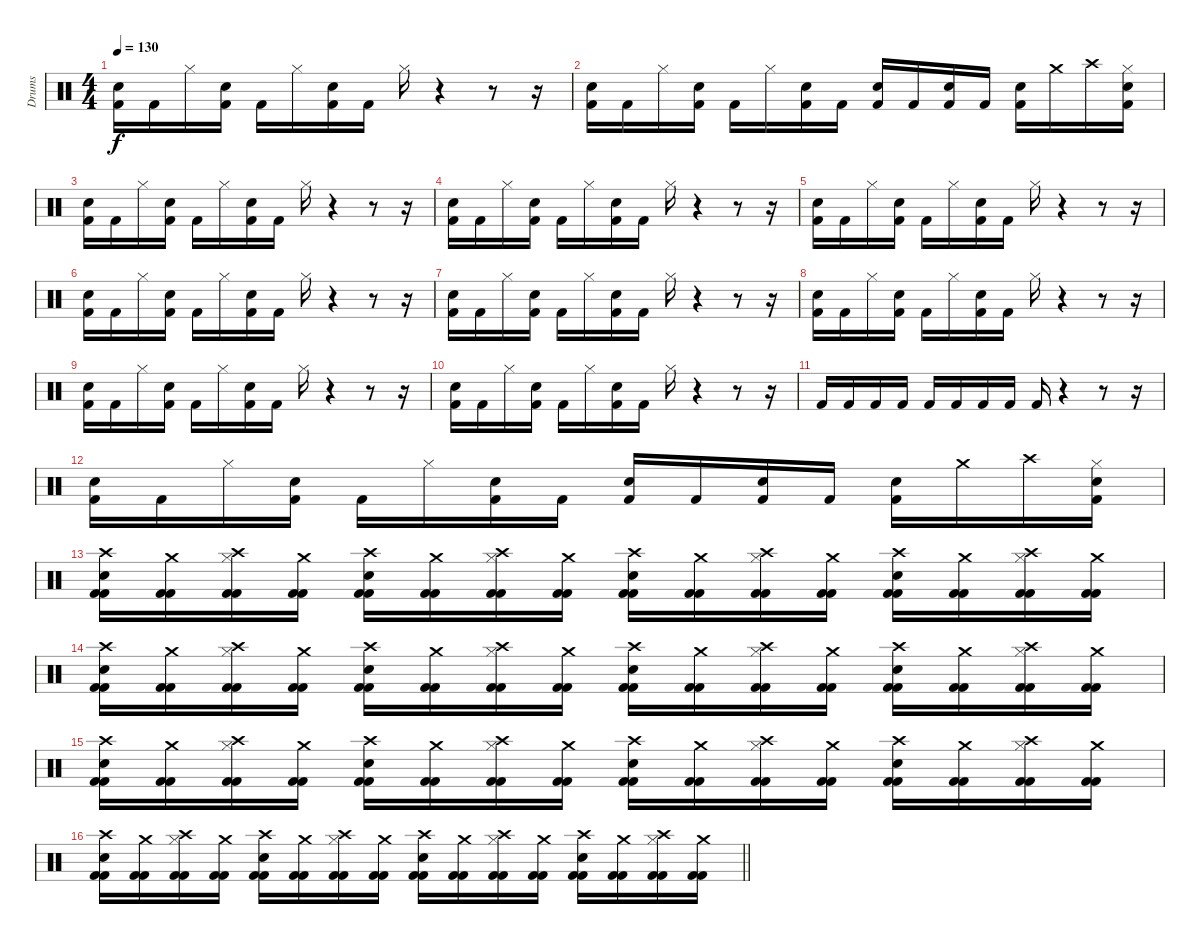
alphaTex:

\track ("Drums" "Drums") {instrument percussion}
\staff
\articulation defaults
\ts (4 4)
\tempo 130
\clef neutral
\ks c
("Snare (hit) 2" "Kick (hit) 2").16{dy f} "Kick (hit) 2".16 "Hi-Hat (closed)".16 ("Snare (hit) 2" "Kick (hit) 2").16 "Kick (hit) 2".16 "Hi-Hat (closed)".16 ("Snare (hit) 2" "Kick (hit) 2").16 "Kick (hit) 2".16 "Hi-Hat (closed)".16 r.4 r.8 r.16 |
("Snare (hit) 2" "Kick (hit) 2").16 "Kick (hit) 2".16 "Hi-Hat (closed)".16 ("Snare (hit) 2" "Kick (hit) 2").16 "Kick (hit) 2".16 "Hi-Hat (closed)".16 ("Snare (hit) 2" "Kick (hit) 2").16 "Kick (hit) 2".16 ("Snare (hit) 2" "Kick (hit) 2").16 "Kick (hit) 2".16 ("Snare (hit) 2" "Kick (hit) 2").16 "Kick (hit) 2".16 ("Snare (hit) 2" "Kick (hit) 2").16 "Crash medium (hit)".16 "Crash high (hit)".16 ("Hi-Hat (closed)" "Snare (hit) 2" "Kick (hit) 2").16 |
("Snare (hit) 2" "Kick (hit) 2").16 "Kick (hit) 2".16 "Hi-Hat (closed)".16 ("Snare (hit) 2" "Kick (hit) 2").16 "Kick (hit) 2".16 "Hi-Hat (closed)".16 ("Snare (hit) 2" "Kick (hit) 2").16 "Kick (hit) 2".16 "Hi-Hat (closed)".16 r.4 r.8 r.16 |
("Snare (hit) 2" "Kick (hit) 2").16 "Kick (hit) 2".16 "Hi-Hat (closed)".16 ("Snare (hit) 2" "Kick (hit) 2").16 "Kick (hit) 2".16 "Hi-Hat (closed)".16 ("Snare (hit) 2" "Kick (hit) 2").16 "Kick (hit) 2".16 "Hi-Hat (closed)".16 r.4 r.8 r.16 |
("Snare (hit) 2" "Kick (hit) 2").16 "Kick (hit) 2".16 "Hi-Hat (closed)".16 ("Snare (hit) 2" "Kick (hit) 2").16 "Kick (hit) 2".16 "Hi-Hat (closed)".16 ("Snare (hit) 2" "Kick (hit) 2").16 "Kick (hit) 2".16 "Hi-Hat (closed)".16 r.4 r.8 r.16 |
("Snare (hit) 2" "Kick (hit) 2").16 "Kick (hit) 2".16 "Hi-Hat (closed)".16 ("Snare (hit) 2" "Kick (hit) 2").16 "Kick (hit) 2".16 "Hi-Hat (closed)".16 ("Snare (hit) 2" "Kick (hit) 2").16 "Kick (hit) 2".16 "Hi-Hat (closed)".16 r.4 r.8 r.16 |
("Snare (hit) 2" "Kick (hit) 2").16 "Kick (hit) 2".16 "Hi-Hat (closed)".16 ("Snare (hit) 2" "Kick (hit) 2").16 "Kick (hit) 2".16 "Hi-Hat (closed)".16 ("Snare (hit) 2" "Kick (hit) 2").16 "Kick (hit) 2".16 "Hi-Hat (closed)".16 r.4 r.8 r.16 |
("Snare (hit) 2" "Kick (hit) 2").16 "Kick (hit) 2".16 "Hi-Hat (closed)".16 ("Snare (hit) 2" "Kick (hit) 2").16 "Kick (hit) 2".16 "Hi-Hat (closed)".16 ("Snare (hit) 2" "Kick (hit) 2").16 "Kick (hit) 2".16 "Hi-Hat (closed)".16 r.4 r.8 r.16 |
("Snare (hit) 2" "Kick (hit) 2").16 "Kick (hit) 2".16 "Hi-Hat (closed)".16 ("Snare (hit) 2" "Kick (hit) 2").16 "Kick (hit) 2".16 "Hi-Hat (closed)".16 ("Snare (hit) 2" "Kick (hit) 2").16 "Kick (hit) 2".16 "Hi-Hat (closed)".16 r.4 r.8 r.16 |
("Snare (hit) 2" "Kick (hit) 2").16 "Kick (hit) 2".16 "Hi-Hat (closed)".16 ("Snare (hit) 2" "Kick (hit) 2").16 "Kick (hit) 2".16 "Hi-Hat (closed)".16 ("Snare (hit) 2" "Kick (hit) 2").16 "Kick (hit) 2".16 "Hi-Hat (closed)".16 r.4 r.8 r.16 |
"Kick (hit) 2".16 "Kick (hit) 2".16 "Kick (hit) 2".16 "Kick (hit) 2".16 "Kick (hit) 2".16 "Kick (hit) 2".16 "Kick (hit) 2".16 "Kick (hit) 2".16 "Kick (hit) 2".16 r.4 r.8 r.16 |
("Snare (hit) 2" "Kick (hit) 2").16 "Kick (hit) 2".16 "Hi-Hat (closed)".16 ("Snare (hit) 2" "Kick (hit) 2").16 "Kick (hit) 2".16 "Hi-Hat (closed)".16 ("Snare (hit) 2" "Kick (hit) 2").16 "Kick (hit) 2".16 ("Snare (hit) 2" "Kick (hit) 2").16 "Kick (hit) 2".16 ("Snare (hit) 2" "Kick (hit) 2").16 "Kick (hit) 2".16 ("Snare (hit) 2" "Kick (hit) 2").16 "Crash medium (hit)".16 "Crash high (hit)".16 ("Hi-Hat (closed)" "Snare (hit) 2" "Kick (hit) 2").16 |
("Kick (hit) 2" "Crash high (hit)" "Electric Snare (hit)" "Kick (hit) 2").16 ("Kick (hit) 2" "Crash medium (hit)" "Kick (hit) 2").16 ("Kick (hit) 2" "Crash high (hit)" "Hi-Hat (closed)" "Kick (hit) 2").16 ("Kick (hit) 2" "Crash medium (hit)" "Kick (hit) 2").16 ("Kick (hit) 2" "Crash high (hit)" "Electric Snare (hit)" "Kick (hit) 2").16 ("Kick (hit) 2" "Crash medium (hit)" "Kick (hit) 2").16 ("Kick (hit) 2" "Crash high (hit)" "Hi-Hat (closed)" "Kick (hit) 2").16 ("Kick (hit) 2" "Crash medium (hit)" "Kick (hit) 2").16 ("Kick (hit) 2" "Crash high (hit)" "Electric Snare (hit)" "Kick (hit) 2").16 ("Kick (hit) 2" "Crash medium (hit)" "Kick (hit) 2").16 ("Kick (hit) 2" "Crash high (hit)" "Hi-Hat (closed)" "Kick (hit) 2").16 ("Kick (hit) 2" "Crash medium (hit)" "Kick (hit) 2").16 ("Kick (hit) 2" "Crash high (hit)" "Electric Snare (hit)" "Kick (hit) 2").16 ("Kick (hit) 2" "Crash medium (hit)" "Kick (hit) 2").16 ("Kick (hit) 2" "Crash high (hit)" "Hi-Hat (closed)" "Kick (hit) 2").16 ("Kick (hit) 2" "Crash medium (hit)" "Kick (hit) 2").16 |
("Kick (hit) 2" "Crash high (hit)" "Electric Snare (hit)" "Kick (hit) 2").16 ("Kick (hit) 2" "Crash medium (hit)" "Kick (hit) 2").16 ("Kick (hit) 2" "Crash high (hit)" "Hi-Hat (closed)" "Kick (hit) 2").16 ("Kick (hit) 2" "Crash medium (hit)" "Kick (hit) 2").16 ("Kick (hit) 2" "Crash high (hit)" "Electric Snare (hit)" "Kick (hit) 2").16 ("Kick (hit) 2" "Crash medium (hit)" "Kick (hit) 2").16 ("Kick (hit) 2" "Crash high (hit)" "Hi-Hat (closed)" "Kick (hit) 2").16 ("Kick (hit) 2" "Crash medium (hit)" "Kick (hit) 2").16 ("Kick (hit) 2" "Crash high (hit)" "Electric Snare (hit)" "Kick (hit) 2").16 ("Kick (hit) 2" "Crash medium (hit)" "Kick (hit) 2").16 ("Kick (hit) 2" "Crash high (hit)" "Hi-Hat (closed)" "Kick (hit) 2").16 ("Kick (hit) 2" "Crash medium (hit)" "Kick (hit) 2").16 ("Kick (hit) 2" "Crash high (hit)" "Electric Snare (hit)" "Kick (hit) 2").16 ("Kick (hit) 2" "Crash medium (hit)" "Kick (hit) 2").16 ("Kick (hit) 2" "Crash high (hit)" "Hi-Hat (closed)" "Kick (hit) 2").16 ("Kick (hit) 2" "Crash medium (hit)" "Kick (hit) 2").16 |
("Kick (hit) 2" "Crash high (hit)" "Electric Snare (hit)" "Kick (hit) 2").16 ("Kick (hit) 2" "Crash medium (hit)" "Kick (hit) 2").16 ("Kick (hit) 2" "Crash high (hit)" "Hi-Hat (closed)" "Kick (hit) 2").16 ("Kick (hit) 2" "Crash medium (hit)" "Kick (hit) 2").16 ("Kick (hit) 2" "Crash high (hit)" "Electric Snare (hit)" "Kick (hit) 2").16 ("Kick (hit) 2" "Crash medium (hit)" "Kick (hit) 2").16 ("Kick (hit) 2" "Crash high (hit)" "Hi-Hat (closed)" "Kick (hit) 2").16 ("Kick (hit) 2" "Crash medium (hit)" "Kick (hit) 2").16 ("Kick (hit) 2" "Crash high (hit)" "Electric Snare (hit)" "Kick (hit) 2").16 ("Kick (hit) 2" "Crash medium (hit)" "Kick (hit) 2").16 ("Kick (hit) 2" "Crash high (hit)" "Hi-Hat (closed)" "Kick (hit) 2").16 ("Kick (hit) 2" "Crash medium (hit)" "Kick (hit) 2").16 ("Kick (hit) 2" "Crash high (hit)" "Electric Snare (hit)" "Kick (hit) 2").16 ("Kick (hit) 2" "Crash medium (hit)" "Kick (hit) 2").16 ("Kick (hit) 2" "Crash high (hit)" "Hi-Hat (closed)" "Kick (hit) 2").16 ("Kick (hit) 2" "Crash medium (hit)" "Kick (hit) 2").16 |
\barLineRight lightlight
("Kick (hit) 2" "Crash high (hit)" "Electric Snare (hit)" "Kick (hit) 2").16 ("Kick (hit) 2" "Crash medium (hit)" "Kick (hit) 2").16 ("Kick (hit) 2" "Crash high (hit)" "Hi-Hat (closed)" "Kick (hit) 2").16 ("Kick (hit) 2" "Crash medium (hit)" "Kick (hit) 2").16 ("Kick (hit) 2" "Crash high (hit)" "Electric Snare (hit)" "Kick (hit) 2").16 ("Kick (hit) 2" "Crash medium (hit)" "Kick (hit) 2").16 ("Kick (hit) 2" "Crash high (hit)" "Hi-Hat (closed)" "Kick (hit) 2").16 ("Kick (hit) 2" "Crash medium (hit)" "Kick (hit) 2").16 ("Kick (hit) 2" "Crash high (hit)" "Electric Snare (hit)" "Kick (hit) 2").16 ("Kick (hit) 2" "Crash medium (hit)" "Kick (hit) 2").16 ("Kick (hit) 2" "Crash high (hit)" "Hi-Hat (closed)" "Kick (hit) 2").16 ("Kick (hit) 2" "Crash medium (hit)" "Kick (hit) 2").16 ("Kick (hit) 2" "Crash high (hit)" "Electric Snare (hit)" "Kick (hit) 2").16 ("Kick (hit) 2" "Crash medium (hit)" "Kick (hit) 2").16 ("Kick (hit) 2" "Crash high (hit)" "Hi-Hat (closed)" "Kick (hit) 2").16 ("Kick (hit) 2" "Crash medium (hit)" "Kick (hit) 2").16
